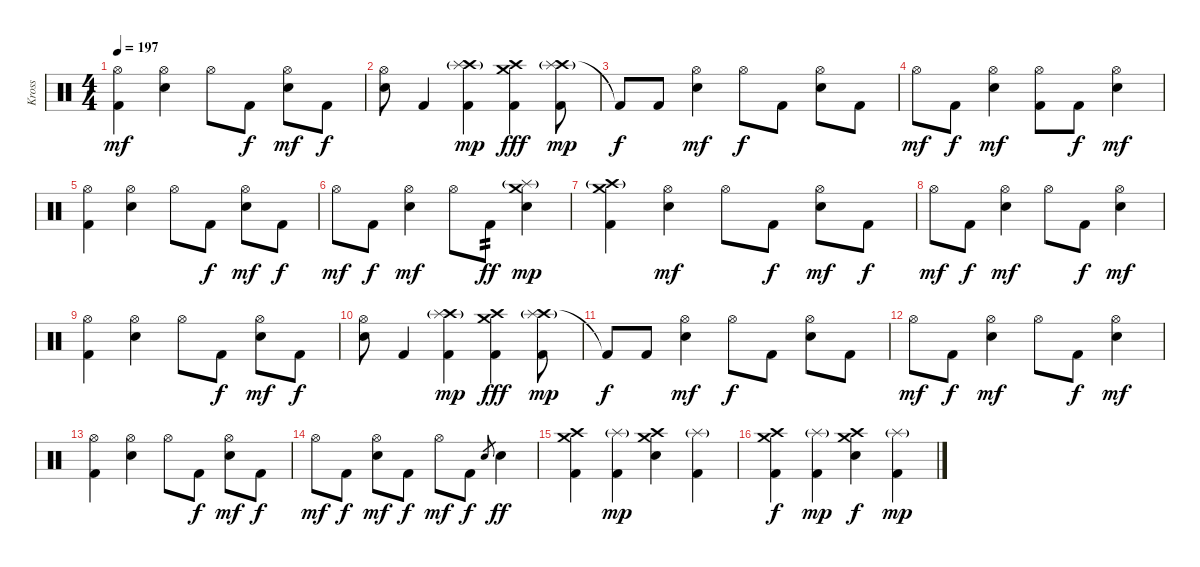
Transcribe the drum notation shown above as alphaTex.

\track ("Kross" "Kross") {instrument percussion}
\staff {score}
\articulation defaults
\ts (4 4)
\tempo 197
\clef neutral
\ks c
("Hi-Hat (open)" "Kick (hit) 2").4{dy mf} ("Hi-Hat (open)" "Electric Snare (hit)").4 "Hi-Hat (open)".8 "Kick (hit) 2".8{dy f} ("Hi-Hat (open)" "Electric Snare (hit)").8{dy mf} "Kick (hit) 2".8{dy f} |
("Hi-Hat (open)" "Electric Snare (hit)").8 "Kick (hit) 2".4 ("Crash high (hit)" "Splash (hit)"{g} "Kick (hit) 2").4{dy mp} ("Crash medium (hit)" "Crash high (hit)" "Kick (hit) 2").4{dy fff} ("Crash high (hit)" "Splash (hit)"{g} "Kick (hit) 2").8{dy mp} |
"Kick (hit) 2"{t}.8{dy f} "Kick (hit) 2".8 ("Hi-Hat (open)" "Electric Snare (hit)").4{dy mf} "Hi-Hat (open)".8{dy f} "Kick (hit) 2".8 ("Hi-Hat (open)" "Electric Snare (hit)").8 "Kick (hit) 2".8 |
"Hi-Hat (open)".8{dy mf} "Kick (hit) 2".8{dy f} ("Hi-Hat (open)" "Electric Snare (hit)").4{dy mf} ("Hi-Hat (open)" "Kick (hit) 2").8 "Kick (hit) 2".8{dy f} ("Hi-Hat (open)" "Electric Snare (hit)").4{dy mf} |
("Hi-Hat (open)" "Kick (hit) 2").4 ("Hi-Hat (open)" "Electric Snare (hit)").4 "Hi-Hat (open)".8 "Kick (hit) 2".8{dy f} ("Hi-Hat (open)" "Electric Snare (hit)").8{dy mf} "Kick (hit) 2".8{dy f} |
"Hi-Hat (open)".8{dy mf} "Kick (hit) 2".8{dy f} ("Hi-Hat (open)" "Electric Snare (hit)").4{dy mf} "Hi-Hat (open)".8 "Kick (hit) 2".8{tp 2 dy ff} ("Crash medium (hit)" "Splash (hit)"{g} "Electric Snare (hit)").4{dy mp} |
("Crash medium (hit)" "Crash high (hit)"{g} "Kick (hit) 2").4 ("Hi-Hat (open)" "Electric Snare (hit)").4{dy mf} "Hi-Hat (open)".8 "Kick (hit) 2".8{dy f} ("Hi-Hat (open)" "Electric Snare (hit)").8{dy mf} "Kick (hit) 2".8{dy f} |
"Hi-Hat (open)".8{dy mf} "Kick (hit) 2".8{dy f} ("Hi-Hat (open)" "Electric Snare (hit)").4{dy mf} "Hi-Hat (open)".8 "Kick (hit) 2".8{dy f} ("Hi-Hat (open)" "Electric Snare (hit)").4{dy mf} |
("Hi-Hat (open)" "Kick (hit) 2").4 ("Hi-Hat (open)" "Electric Snare (hit)").4 "Hi-Hat (open)".8 "Kick (hit) 2".8{dy f} ("Hi-Hat (open)" "Electric Snare (hit)").8{dy mf} "Kick (hit) 2".8{dy f} |
("Hi-Hat (open)" "Electric Snare (hit)").8 "Kick (hit) 2".4 ("Crash high (hit)" "Splash (hit)"{g} "Kick (hit) 2").4{dy mp} ("Crash medium (hit)" "Crash high (hit)" "Kick (hit) 2").4{dy fff} ("Crash high (hit)" "Splash (hit)"{g} "Kick (hit) 2").8{dy mp} |
"Kick (hit) 2"{t}.8{dy f} "Kick (hit) 2".8 ("Hi-Hat (open)" "Electric Snare (hit)").4{dy mf} "Hi-Hat (open)".8{dy f} "Kick (hit) 2".8 ("Hi-Hat (open)" "Electric Snare (hit)").8 "Kick (hit) 2".8 |
"Hi-Hat (open)".8{dy mf} "Kick (hit) 2".8{dy f} ("Hi-Hat (open)" "Electric Snare (hit)").4{dy mf} "Hi-Hat (open)".8 "Kick (hit) 2".8{dy f} ("Hi-Hat (open)" "Electric Snare (hit)").4{dy mf} |
("Hi-Hat (open)" "Kick (hit) 2").4 ("Hi-Hat (open)" "Electric Snare (hit)").4 "Hi-Hat (open)".8 "Kick (hit) 2".8{dy f} ("Hi-Hat (open)" "Electric Snare (hit)").8{dy mf} "Kick (hit) 2".8{dy f} |
"Hi-Hat (open)".8{dy mf} "Kick (hit) 2".8{dy f} ("Hi-Hat (open)" "Electric Snare (hit)").8{dy mf} "Kick (hit) 2".8{dy f} "Hi-Hat (open)".8{dy mf} "Kick (hit) 2".8{dy f} "Electric Snare (hit)".8{gr} "Electric Snare (hit)".4{dy ff} |
("Crash medium (hit)" "Crash high (hit)" "Kick (hit) 2").4 ("Splash (hit)"{g} "Kick (hit) 2").4{dy mp} ("Crash medium (hit)" "Crash high (hit)" "Electric Snare (hit)").4 ("Splash (hit)"{g} "Kick (hit) 2").4 |
("Crash medium (hit)" "Crash high (hit)" "Kick (hit) 2").4{dy f} ("Splash (hit)"{g} "Kick (hit) 2").4{dy mp} ("Crash medium (hit)" "Crash high (hit)" "Electric Snare (hit)").4{dy f} ("Splash (hit)"{g} "Kick (hit) 2").4{dy mp}
